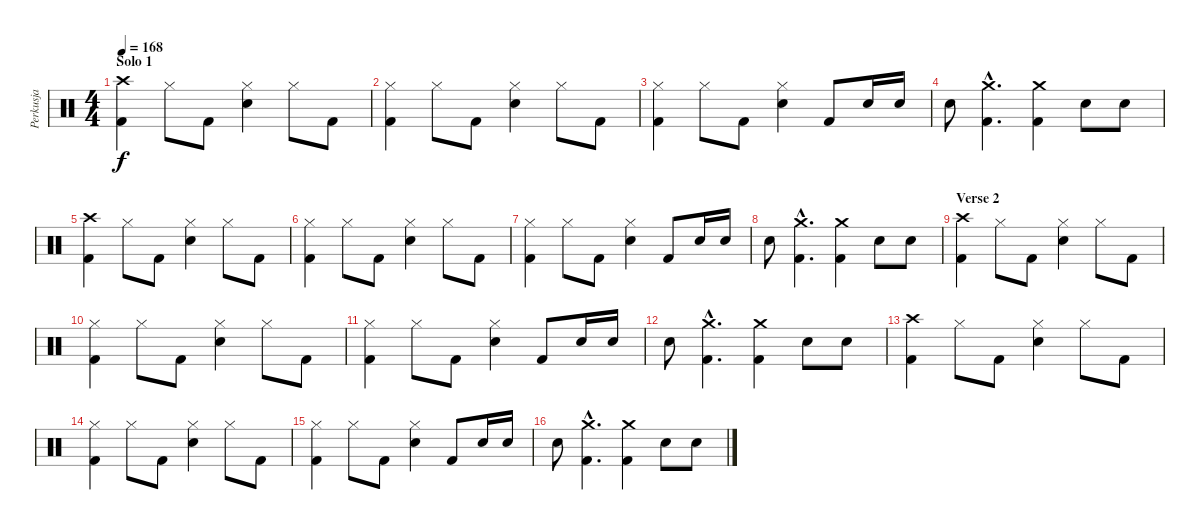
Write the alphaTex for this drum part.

\track ("Perkusja" "Perkusja") {instrument percussion}
\staff {score}
\articulation defaults
\ts (4 4)
\section ("" "Solo 1")
\tempo 168
\clef neutral
\ks c
("Crash high (hit)" "Kick (hit) 2").4{dy f} "Hi-Hat (closed)".8 "Kick (hit) 2".8 ("Hi-Hat (closed)" "Snare (hit) 2").4 "Hi-Hat (closed)".8 "Kick (hit) 2".8 |
("Hi-Hat (closed)" "Kick (hit) 2").4 "Hi-Hat (closed)".8 "Kick (hit) 2".8 ("Hi-Hat (closed)" "Snare (hit) 2").4 "Hi-Hat (closed)".8 "Kick (hit) 2".8 |
("Hi-Hat (closed)" "Kick (hit) 2").4 "Hi-Hat (closed)".8 "Kick (hit) 2".8 ("Hi-Hat (closed)" "Snare (hit) 2").4 "Kick (hit) 2".8 "Snare (hit) 2".16 "Snare (hit) 2".16 |
"Snare (hit) 2".8 ("Crash medium (hit)"{hac} "Kick (hit) 2"{hac}).4{d} ("Crash medium (hit)" "Kick (hit) 2").4 "Snare (hit) 2".8 "Snare (hit) 2".8 |
("Crash high (hit)" "Kick (hit) 2").4 "Hi-Hat (closed)".8 "Kick (hit) 2".8 ("Hi-Hat (closed)" "Snare (hit) 2").4 "Hi-Hat (closed)".8 "Kick (hit) 2".8 |
("Hi-Hat (closed)" "Kick (hit) 2").4 "Hi-Hat (closed)".8 "Kick (hit) 2".8 ("Hi-Hat (closed)" "Snare (hit) 2").4 "Hi-Hat (closed)".8 "Kick (hit) 2".8 |
("Hi-Hat (closed)" "Kick (hit) 2").4 "Hi-Hat (closed)".8 "Kick (hit) 2".8 ("Hi-Hat (closed)" "Snare (hit) 2").4 "Kick (hit) 2".8 "Snare (hit) 2".16 "Snare (hit) 2".16 |
"Snare (hit) 2".8 ("Crash medium (hit)"{hac} "Kick (hit) 2"{hac}).4{d} ("Crash medium (hit)" "Kick (hit) 2").4 "Snare (hit) 2".8 "Snare (hit) 2".8 |
\section ("" "Verse 2")
("Crash high (hit)" "Kick (hit) 2").4 "Hi-Hat (closed)".8 "Kick (hit) 2".8 ("Hi-Hat (closed)" "Snare (hit) 2").4 "Hi-Hat (closed)".8 "Kick (hit) 2".8 |
("Hi-Hat (closed)" "Kick (hit) 2").4 "Hi-Hat (closed)".8 "Kick (hit) 2".8 ("Hi-Hat (closed)" "Snare (hit) 2").4 "Hi-Hat (closed)".8 "Kick (hit) 2".8 |
("Hi-Hat (closed)" "Kick (hit) 2").4 "Hi-Hat (closed)".8 "Kick (hit) 2".8 ("Hi-Hat (closed)" "Snare (hit) 2").4 "Kick (hit) 2".8 "Snare (hit) 2".16 "Snare (hit) 2".16 |
"Snare (hit) 2".8 ("Crash medium (hit)"{hac} "Kick (hit) 2"{hac}).4{d} ("Crash medium (hit)" "Kick (hit) 2").4 "Snare (hit) 2".8 "Snare (hit) 2".8 |
("Crash high (hit)" "Kick (hit) 2").4 "Hi-Hat (closed)".8 "Kick (hit) 2".8 ("Hi-Hat (closed)" "Snare (hit) 2").4 "Hi-Hat (closed)".8 "Kick (hit) 2".8 |
("Hi-Hat (closed)" "Kick (hit) 2").4 "Hi-Hat (closed)".8 "Kick (hit) 2".8 ("Hi-Hat (closed)" "Snare (hit) 2").4 "Hi-Hat (closed)".8 "Kick (hit) 2".8 |
("Hi-Hat (closed)" "Kick (hit) 2").4 "Hi-Hat (closed)".8 "Kick (hit) 2".8 ("Hi-Hat (closed)" "Snare (hit) 2").4 "Kick (hit) 2".8 "Snare (hit) 2".16 "Snare (hit) 2".16 |
"Snare (hit) 2".8 ("Crash medium (hit)"{hac} "Kick (hit) 2"{hac}).4{d} ("Crash medium (hit)" "Kick (hit) 2").4 "Snare (hit) 2".8 "Snare (hit) 2".8
